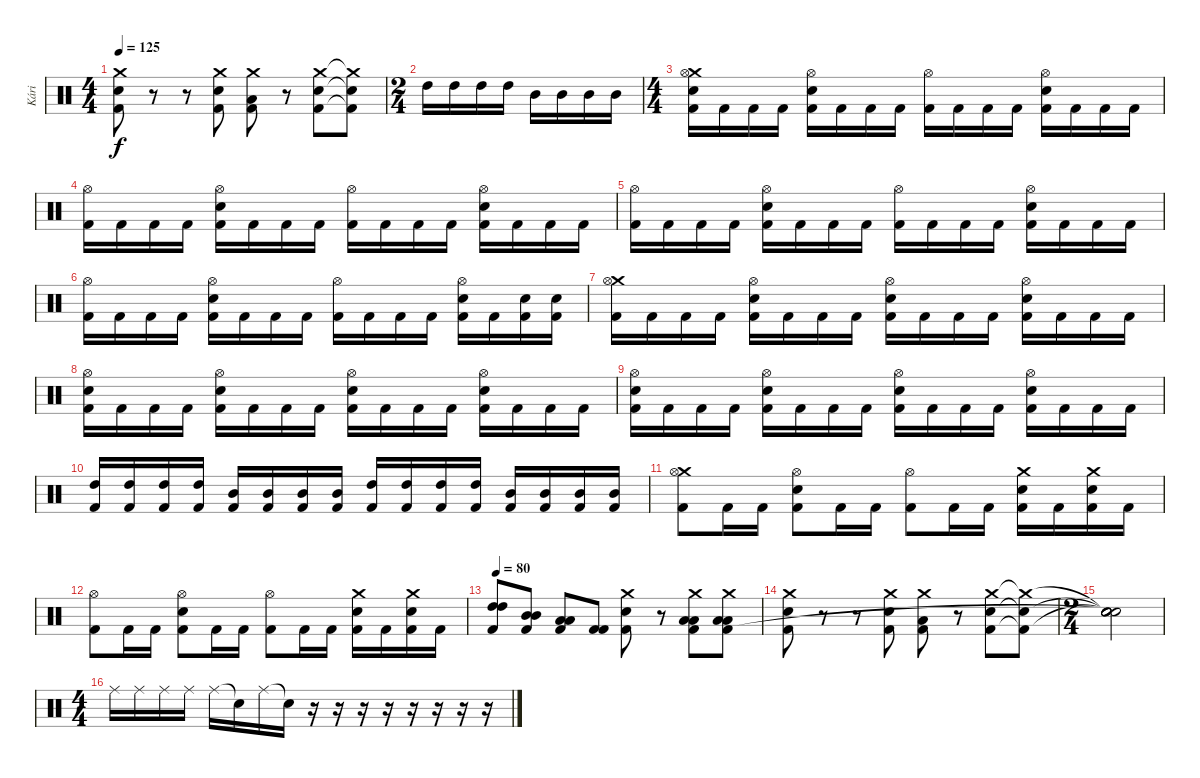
\track ("Kári" "Kári") {instrument percussion}
\staff {score}
\articulation defaults
\ts (4 4)
\tempo 125
\clef neutral
\ks c
("Crash medium (hit)" "Snare (hit) 2" "Kick (hit) 2").8{dy f} r.8 r.8 ("Crash medium (hit)" "Snare (hit) 2" "Kick (hit) 2").8 ("Crash medium (hit)" "Low Tom (hit)" "Kick (hit) 2").8 r.8 ("Crash medium (hit)" "Snare (hit) 2" "Kick (hit) 2").8 ("Crash medium (hit)"{t} "Snare (hit)"{t} "Kick (hit) 2"{t}).8 |
\ts (2 4)
"High Tom (hit)".16 "High Tom (hit)".16 "High Tom (hit)".16 "High Tom (hit)".16 "Mid Tom (hit)".16 "Mid Tom (hit)".16 "Mid Tom (hit)".16 "Mid Tom (hit)".16 |
\ts (4 4)
("Crash medium (hit)" "Hi-Hat (open)" "Snare (hit) 2" "Kick (hit) 2").16 "Kick (hit) 2".16 "Kick (hit) 2".16 "Kick (hit) 2".16 ("Hi-Hat (open)" "Snare (hit) 2" "Kick (hit) 2").16 "Kick (hit) 2".16 "Kick (hit) 2".16 "Kick (hit) 2".16 ("Hi-Hat (open)" "Kick (hit) 2").16 "Kick (hit) 2".16 "Kick (hit) 2".16 "Kick (hit) 2".16 ("Hi-Hat (open)" "Snare (hit) 2" "Kick (hit) 2").16 "Kick (hit) 2".16 "Kick (hit) 2".16 "Kick (hit) 2".16 |
("Hi-Hat (open)" "Kick (hit) 2").16 "Kick (hit) 2".16 "Kick (hit) 2".16 "Kick (hit) 2".16 ("Hi-Hat (open)" "Snare (hit) 2" "Kick (hit) 2").16 "Kick (hit) 2".16 "Kick (hit) 2".16 "Kick (hit) 2".16 ("Hi-Hat (open)" "Kick (hit) 2").16 "Kick (hit) 2".16 "Kick (hit) 2".16 "Kick (hit) 2".16 ("Hi-Hat (open)" "Snare (hit) 2" "Kick (hit) 2").16 "Kick (hit) 2".16 "Kick (hit) 2".16 "Kick (hit) 2".16 |
("Hi-Hat (open)" "Kick (hit) 2").16 "Kick (hit) 2".16 "Kick (hit) 2".16 "Kick (hit) 2".16 ("Hi-Hat (open)" "Snare (hit) 2" "Kick (hit) 2").16 "Kick (hit) 2".16 "Kick (hit) 2".16 "Kick (hit) 2".16 ("Hi-Hat (open)" "Kick (hit) 2").16 "Kick (hit) 2".16 "Kick (hit) 2".16 "Kick (hit) 2".16 ("Hi-Hat (open)" "Snare (hit) 2" "Kick (hit) 2").16 "Kick (hit) 2".16 "Kick (hit) 2".16 "Kick (hit) 2".16 |
("Hi-Hat (open)" "Kick (hit) 2").16 "Kick (hit) 2".16 "Kick (hit) 2".16 "Kick (hit) 2".16 ("Hi-Hat (open)" "Snare (hit) 2" "Kick (hit) 2").16 "Kick (hit) 2".16 "Kick (hit) 2".16 "Kick (hit) 2".16 ("Hi-Hat (open)" "Kick (hit) 2").16 "Kick (hit) 2".16 "Kick (hit) 2".16 "Kick (hit) 2".16 ("Hi-Hat (open)" "Snare (hit) 2" "Kick (hit) 2").16 "Kick (hit) 2".16 ("Snare (hit) 2" "Kick (hit) 2").16 ("Snare (hit) 2" "Kick (hit) 2").16 |
("Crash medium (hit)" "Hi-Hat (open)" "Kick (hit) 2").16 "Kick (hit) 2".16 "Kick (hit) 2".16 "Kick (hit) 2".16 ("Hi-Hat (open)" "Snare (hit) 2" "Kick (hit) 2").16 "Kick (hit) 2".16 "Kick (hit) 2".16 "Kick (hit) 2".16 ("Hi-Hat (open)" "Snare (hit) 2" "Kick (hit) 2").16 "Kick (hit) 2".16 "Kick (hit) 2".16 "Kick (hit) 2".16 ("Hi-Hat (open)" "Snare (hit) 2" "Kick (hit) 2").16 "Kick (hit) 2".16 "Kick (hit) 2".16 "Kick (hit) 2".16 |
("Hi-Hat (open)" "Snare (hit) 2" "Kick (hit) 2").16 "Kick (hit) 2".16 "Kick (hit) 2".16 "Kick (hit) 2".16 ("Hi-Hat (open)" "Snare (hit) 2" "Kick (hit) 2").16 "Kick (hit) 2".16 "Kick (hit) 2".16 "Kick (hit) 2".16 ("Hi-Hat (open)" "Snare (hit) 2" "Kick (hit) 2").16 "Kick (hit) 2".16 "Kick (hit) 2".16 "Kick (hit) 2".16 ("Hi-Hat (open)" "Snare (hit) 2" "Kick (hit) 2").16 "Kick (hit) 2".16 "Kick (hit) 2".16 "Kick (hit) 2".16 |
("Hi-Hat (open)" "Snare (hit) 2" "Kick (hit) 2").16 "Kick (hit) 2".16 "Kick (hit) 2".16 "Kick (hit) 2".16 ("Hi-Hat (open)" "Snare (hit) 2" "Kick (hit) 2").16 "Kick (hit) 2".16 "Kick (hit) 2".16 "Kick (hit) 2".16 ("Hi-Hat (open)" "Snare (hit) 2" "Kick (hit) 2").16 "Kick (hit) 2".16 "Kick (hit) 2".16 "Kick (hit) 2".16 ("Hi-Hat (open)" "Snare (hit) 2" "Kick (hit) 2").16 "Kick (hit) 2".16 "Kick (hit) 2".16 "Kick (hit) 2".16 |
("High Tom (hit)" "Kick (hit) 2").16 ("High Tom (hit)" "Kick (hit) 2").16 ("High Tom (hit)" "Kick (hit) 2").16 ("High Tom (hit)" "Kick (hit) 2").16 ("Mid Tom (hit)" "Kick (hit) 2").16 ("Mid Tom (hit)" "Kick (hit) 2").16 ("Mid Tom (hit)" "Kick (hit) 2").16 ("Mid Tom (hit)" "Kick (hit) 2").16 ("High Tom (hit)" "Kick (hit) 2").16 ("High Tom (hit)" "Kick (hit) 2").16 ("High Tom (hit)" "Kick (hit) 2").16 ("High Tom (hit)" "Kick (hit) 2").16 ("Mid Tom (hit)" "Kick (hit) 2").16 ("Mid Tom (hit)" "Kick (hit) 2").16 ("Mid Tom (hit)" "Kick (hit) 2").16 ("Mid Tom (hit)" "Kick (hit) 2").16 |
("Crash medium (hit)" "Hi-Hat (open)" "Kick (hit) 2").8 "Kick (hit) 2".16 "Kick (hit) 2".16 ("Hi-Hat (open)" "Snare (hit) 2" "Kick (hit) 2").8 "Kick (hit) 2".16 "Kick (hit) 2".16 ("Hi-Hat (open)" "Kick (hit) 2").8 "Kick (hit) 2".16 "Kick (hit) 2".16 ("Crash medium (hit)" "Snare (hit) 2" "Kick (hit) 2").16 "Kick (hit) 2".16 ("Crash medium (hit)" "Snare (hit) 2" "Kick (hit) 2").16 "Kick (hit) 2".16 |
("Hi-Hat (open)" "Kick (hit) 2").8 "Kick (hit) 2".16 "Kick (hit) 2".16 ("Hi-Hat (open)" "Snare (hit) 2" "Kick (hit) 2").8 "Kick (hit) 2".16 "Kick (hit) 2".16 ("Hi-Hat (open)" "Kick (hit) 2").8 "Kick (hit) 2".16 "Kick (hit) 2".16 ("Crash medium (hit)" "Snare (hit) 2" "Kick (hit) 2").16 "Kick (hit) 2".16 ("Crash medium (hit)" "Snare (hit) 2" "Kick (hit) 2").16 "Kick (hit) 2".16 |
\tempo 80
("High Tom (hit)" "High Tom (hit)" "Kick (hit) 2").8 ("Mid Tom (hit)" "Mid Tom (hit)" "Kick (hit) 2").8 ("Low Tom (hit)" "Low Tom (hit)" "Kick (hit) 2").8 ("Kick (hit) 2" "Kick (hit) 2").8 ("Crash medium (hit)" "Snare (hit) 2" "Kick (hit) 2").8 r.8 ("Low Tom (hit)" "Low Tom (hit)" "Crash medium (hit)" "Kick (hit) 2").8 ("Low Floor Tom (hit)" "Low Floor Tom (hit)" "Crash medium (hit)" "Kick (hit) 2").8 |
("Crash medium (hit)" "Snare (hit) 2" "Kick (hit) 2").8 r.8 r.8 ("Crash medium (hit)" "Snare (hit) 2" "Kick (hit) 2").8 ("Crash medium (hit)" "Low Tom (hit)" "Kick (hit) 2").8 r.8 ("Crash medium (hit)" "Snare (hit) 2" "Kick (hit) 2").8 ("Crash medium (hit)"{t} "Snare (hit)"{t} "Kick (hit) 2"{t}).8 |
\ts (2 4)
("Snare (hit)"{t} "Snare (hit)"{t} "Snare (hit)"{t} "Snare (hit)"{t} "Snare (hit)").2 |
\ts (4 4)
"Ride (middle)".16 "Ride (middle)".16 "Ride (middle)".16 "Ride (middle)".16 "Ride (middle)".16 "Snare (hit)"{t}.16 "Ride (middle)".16 "Snare (hit)"{t}.16 r.16 r.16 r.16 r.16 r.16 r.16 r.16 r.16
